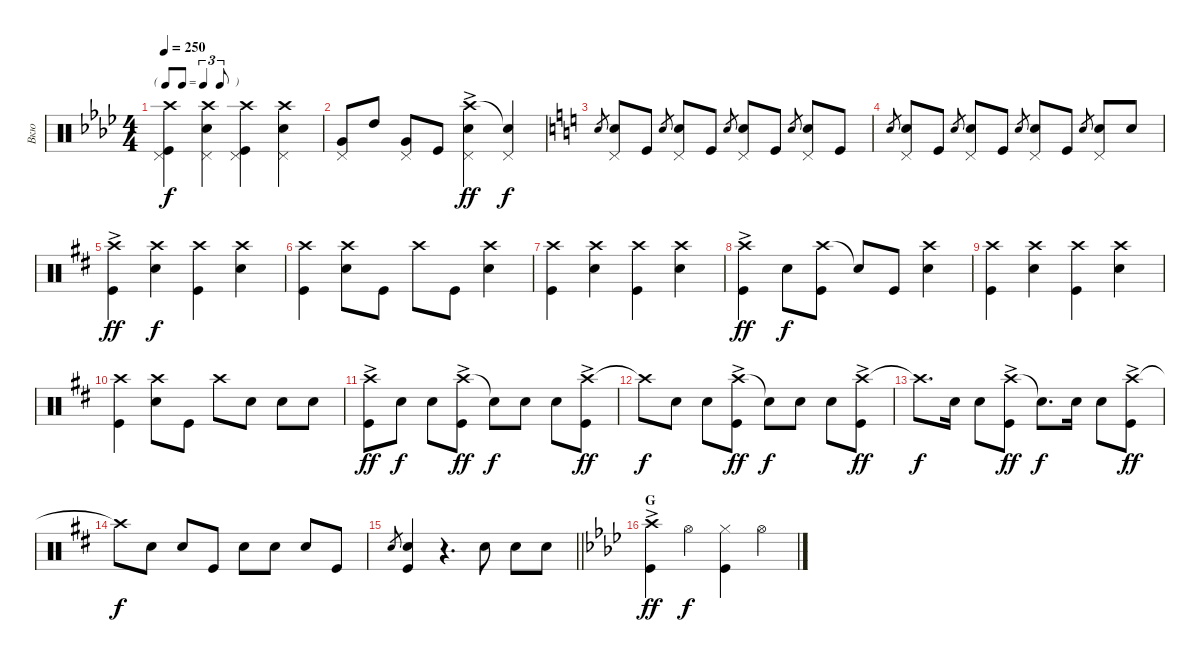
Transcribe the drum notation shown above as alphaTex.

\track ("Вкю" "Вкю") {instrument percussion}
\staff {score}
\articulation defaults
\ts (4 4)
\tf triplet8th
\tempo 250
\clef neutral
\ks ab
("Crash high (hit)" "Kick (hit)" "Pedal Hi-Hat (hit)").4{dy f} ("Crash high (hit)" "Snare (hit) 2" "Pedal Hi-Hat (hit)").4 ("Crash high (hit)" "Kick (hit)" "Pedal Hi-Hat (hit)").4 ("Crash high (hit)" "Snare (hit) 2" "Pedal Hi-Hat (hit)").4 |
("Very Low Tom (hit)" "Pedal Hi-Hat (hit)").8 "High Tom (hit)".8 ("Very Low Tom (hit)" "Pedal Hi-Hat (hit)").8 "Kick (hit)".8 ("Crash high (hit)"{ac} "Snare (hit) 2"{ac} "Pedal Hi-Hat (hit)"{ac}).4{dy ff} ("Snare (hit)"{t} "Pedal Hi-Hat (hit)").4{dy f} |
\ks c "Snare (hit) 2"{sl}.8{gr}
("Snare (hit) 2" "Pedal Hi-Hat (hit)").8 "Kick (hit)".8 "Snare (hit) 2"{sl}.8{gr} ("Snare (hit) 2" "Pedal Hi-Hat (hit)").8 "Kick (hit)".8 "Snare (hit) 2"{sl}.8{gr} ("Snare (hit) 2" "Pedal Hi-Hat (hit)").8 "Kick (hit)".8 "Snare (hit) 2"{sl}.8{gr} ("Snare (hit) 2" "Pedal Hi-Hat (hit)").8 "Kick (hit)".8 |
"Snare (hit) 2"{sl}.8{gr} ("Snare (hit) 2" "Pedal Hi-Hat (hit)").8 "Kick (hit)".8 "Snare (hit) 2"{sl}.8{gr} ("Snare (hit) 2" "Pedal Hi-Hat (hit)").8 "Kick (hit)".8 "Snare (hit) 2"{sl}.8{gr} ("Snare (hit) 2" "Pedal Hi-Hat (hit)").8 "Kick (hit)".8 "Snare (hit) 2"{sl}.8{gr} ("Snare (hit) 2" "Pedal Hi-Hat (hit)").8 "Snare (hit) 2".8 |
\ks d
("Crash high (hit)"{ac} "Kick (hit)"{ac}).4{dy ff} ("Crash high (hit)" "Snare (hit) 2").4{dy f} ("Crash high (hit)" "Kick (hit)").4 ("Crash high (hit)" "Snare (hit) 2").4 |
("Crash high (hit)" "Kick (hit)").4 ("Crash high (hit)" "Snare (hit) 2").8 "Kick (hit)".8 "Crash high (hit)".8 "Kick (hit)".8 ("Crash high (hit)" "Snare (hit) 2").4 |
("Crash high (hit)" "Kick (hit)").4 ("Crash high (hit)" "Snare (hit) 2").4 ("Crash high (hit)" "Kick (hit)").4 ("Crash high (hit)" "Snare (hit) 2").4 |
("Crash high (hit)"{ac} "Kick (hit)"{ac}).4{dy ff} "Snare (hit) 2".8{dy f} ("Crash high (hit)" "Kick (hit)").8 "Snare (hit)"{t}.8 "Kick (hit)".8 ("Crash high (hit)" "Snare (hit) 2").4 |
("Crash high (hit)" "Kick (hit)").4 ("Crash high (hit)" "Snare (hit) 2").4 ("Crash high (hit)" "Kick (hit)").4 ("Crash high (hit)" "Snare (hit) 2").4 |
("Crash high (hit)" "Kick (hit)").4 ("Crash high (hit)" "Snare (hit) 2").8 "Kick (hit)".8 "Crash high (hit)".8 "Snare (hit) 2".8 "Snare (hit) 2".8 "Snare (hit) 2".8 |
("Crash high (hit)"{ac} "Kick (hit)"{ac}).8{dy ff} "Snare (hit) 2".8{dy f} "Snare (hit) 2".8 ("Crash high (hit)"{ac} "Kick (hit)"{ac}).8{dy ff} "Snare (hit)"{t}.8{dy f} "Snare (hit) 2".8 "Snare (hit) 2".8 ("Crash high (hit)"{ac} "Kick (hit)"{ac}).8{dy ff} |
"Crash high (hit)"{t}.8{dy f} "Snare (hit) 2".8 "Snare (hit) 2".8 ("Crash high (hit)"{ac} "Kick (hit)"{ac}).8{dy ff} "Snare (hit)"{t}.8{dy f} "Snare (hit) 2".8 "Snare (hit) 2".8 ("Crash high (hit)"{ac} "Kick (hit)"{ac}).8{dy ff} |
"Crash high (hit)"{t}.8{d dy f} "Snare (hit) 2".16 "Snare (hit) 2".8 ("Crash high (hit)"{ac} "Kick (hit)"{ac}).8{dy ff} "Snare (hit)"{t}.8{d dy f} "Snare (hit) 2".16 "Snare (hit) 2".8 ("Crash high (hit)"{ac} "Kick (hit)"{ac}).8{dy ff} |
"Crash high (hit)"{t}.8{dy f} "Snare (hit) 2".8 "Snare (hit) 2".8 "Kick (hit)".8 "Snare (hit) 2".8 "Snare (hit) 2".8 "Snare (hit) 2".8 "Kick (hit)".8 |
\barLineRight lightlight "Snare (hit) 2".8{gr}
("Snare (hit) 2" "Kick (hit)").4 r.4{d} "Snare (hit) 2".8 "Snare (hit) 2".8 "Snare (hit) 2".8 |
\section ("" "G")
\ks ab
("Crash high (hit)"{ac} "Kick (hit)"{ac}).4{dy ff} "Hi-Hat (open)".4{dy f} ("Hi-Hat (closed)" "Kick (hit)").4 "Hi-Hat (open)".4
